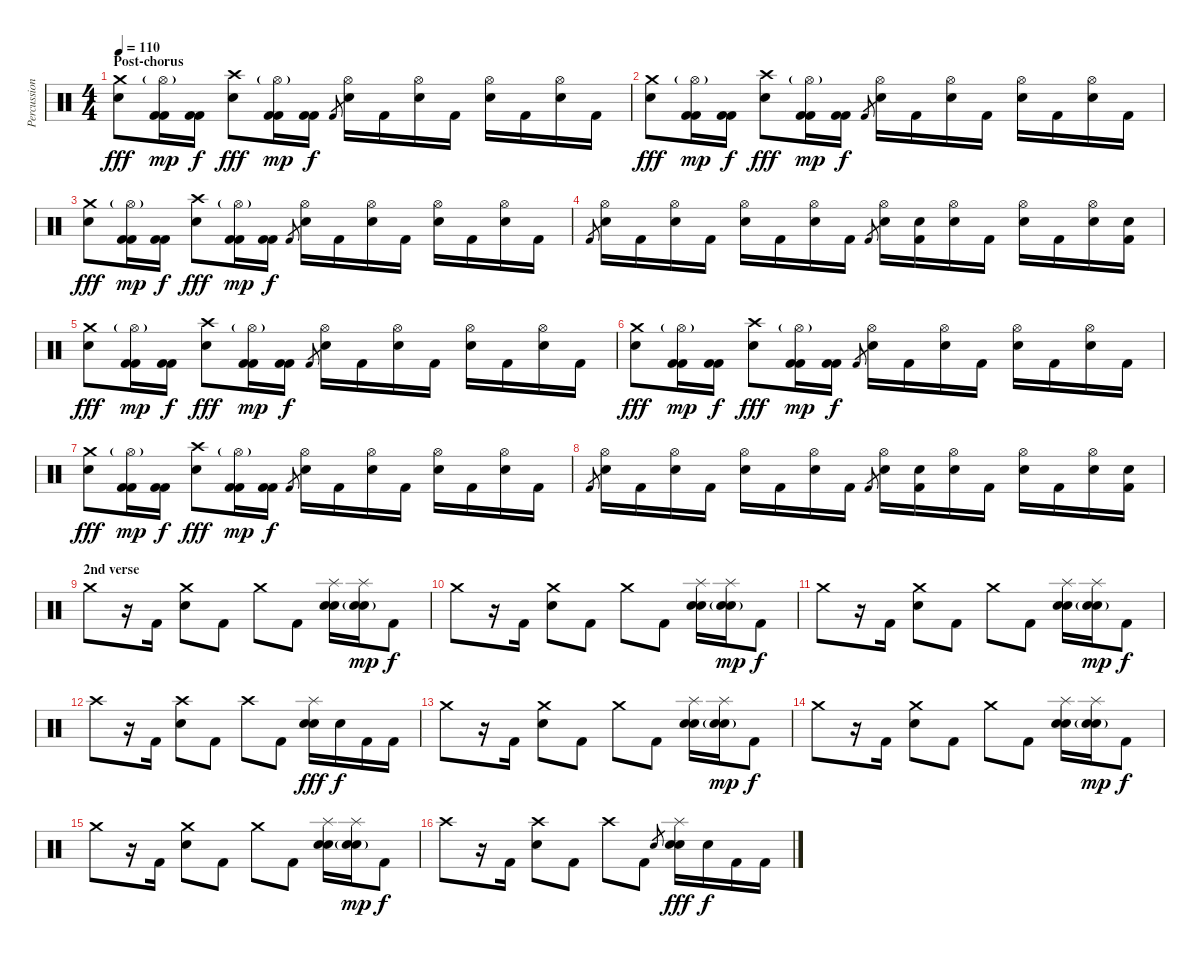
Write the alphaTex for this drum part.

\track ("Percussion" "Percussion") {instrument percussion}
\staff {score}
\articulation defaults
\ts (4 4)
\section ("" "Post-chorus")
\tempo 110
\clef neutral
\ks c
("Crash medium (hit)" "Snare (hit) 2").8{dy fff} ("Hi-Hat (open)"{g} "Kick (hit) 2" "Kick (hit) 2").16{dy mp} ("Kick (hit) 2" "Kick (hit) 2").16{dy f} ("Crash high (hit)" "Snare (hit) 2").8{dy fff} ("Hi-Hat (open)"{g} "Kick (hit) 2" "Kick (hit) 2").16{dy mp} ("Kick (hit) 2" "Kick (hit) 2").16{dy f} "Kick (hit) 2".8{gr} ("Hi-Hat (open)" "Electric Snare (hit)").16 "Kick (hit) 2".16 ("Hi-Hat (open)" "Electric Snare (hit)").16 "Kick (hit) 2".16 ("Hi-Hat (open)" "Electric Snare (hit)").16 "Kick (hit) 2".16 ("Hi-Hat (open)" "Electric Snare (hit)").16 "Kick (hit) 2".16 |
("Crash medium (hit)" "Snare (hit) 2").8{dy fff} ("Hi-Hat (open)"{g} "Kick (hit) 2" "Kick (hit) 2").16{dy mp} ("Kick (hit) 2" "Kick (hit) 2").16{dy f} ("Crash high (hit)" "Snare (hit) 2").8{dy fff} ("Hi-Hat (open)"{g} "Kick (hit) 2" "Kick (hit) 2").16{dy mp} ("Kick (hit) 2" "Kick (hit) 2").16{dy f} "Kick (hit) 2".8{gr} ("Hi-Hat (open)" "Electric Snare (hit)").16 "Kick (hit) 2".16 ("Hi-Hat (open)" "Electric Snare (hit)").16 "Kick (hit) 2".16 ("Hi-Hat (open)" "Electric Snare (hit)").16 "Kick (hit) 2".16 ("Hi-Hat (open)" "Electric Snare (hit)").16 "Kick (hit) 2".16 |
("Crash medium (hit)" "Snare (hit) 2").8{dy fff} ("Hi-Hat (open)"{g} "Kick (hit) 2" "Kick (hit) 2").16{dy mp} ("Kick (hit) 2" "Kick (hit) 2").16{dy f} ("Crash high (hit)" "Snare (hit) 2").8{dy fff} ("Hi-Hat (open)"{g} "Kick (hit) 2" "Kick (hit) 2").16{dy mp} ("Kick (hit) 2" "Kick (hit) 2").16{dy f} "Kick (hit) 2".8{gr} ("Hi-Hat (open)" "Electric Snare (hit)").16 "Kick (hit) 2".16 ("Hi-Hat (open)" "Electric Snare (hit)").16 "Kick (hit) 2".16 ("Hi-Hat (open)" "Electric Snare (hit)").16 "Kick (hit) 2".16 ("Hi-Hat (open)" "Electric Snare (hit)").16 "Kick (hit) 2".16 |
"Kick (hit) 2".8{gr} ("Hi-Hat (open)" "Electric Snare (hit)").16 "Kick (hit) 2".16 ("Hi-Hat (open)" "Electric Snare (hit)").16 "Kick (hit) 2".16 ("Hi-Hat (open)" "Electric Snare (hit)").16 "Kick (hit) 2".16 ("Hi-Hat (open)" "Electric Snare (hit)").16 "Kick (hit) 2".16 "Kick (hit) 2".8{gr} ("Hi-Hat (open)" "Electric Snare (hit)").16 ("Snare (hit) 2" "Kick (hit) 2").16 ("Hi-Hat (open)" "Electric Snare (hit)").16 "Kick (hit) 2".16 ("Hi-Hat (open)" "Electric Snare (hit)").16 "Kick (hit) 2".16 ("Hi-Hat (open)" "Snare (hit) 2").16 ("Snare (hit) 2" "Kick (hit) 2").16 |
("Crash medium (hit)" "Snare (hit) 2").8{dy fff} ("Hi-Hat (open)"{g} "Kick (hit) 2" "Kick (hit) 2").16{dy mp} ("Kick (hit) 2" "Kick (hit) 2").16{dy f} ("Crash high (hit)" "Snare (hit) 2").8{dy fff} ("Hi-Hat (open)"{g} "Kick (hit) 2" "Kick (hit) 2").16{dy mp} ("Kick (hit) 2" "Kick (hit) 2").16{dy f} "Kick (hit) 2".8{gr} ("Hi-Hat (open)" "Electric Snare (hit)").16 "Kick (hit) 2".16 ("Hi-Hat (open)" "Electric Snare (hit)").16 "Kick (hit) 2".16 ("Hi-Hat (open)" "Electric Snare (hit)").16 "Kick (hit) 2".16 ("Hi-Hat (open)" "Electric Snare (hit)").16 "Kick (hit) 2".16 |
("Crash medium (hit)" "Snare (hit) 2").8{dy fff} ("Hi-Hat (open)"{g} "Kick (hit) 2" "Kick (hit) 2").16{dy mp} ("Kick (hit) 2" "Kick (hit) 2").16{dy f} ("Crash high (hit)" "Snare (hit) 2").8{dy fff} ("Hi-Hat (open)"{g} "Kick (hit) 2" "Kick (hit) 2").16{dy mp} ("Kick (hit) 2" "Kick (hit) 2").16{dy f} "Kick (hit) 2".8{gr} ("Hi-Hat (open)" "Electric Snare (hit)").16 "Kick (hit) 2".16 ("Hi-Hat (open)" "Electric Snare (hit)").16 "Kick (hit) 2".16 ("Hi-Hat (open)" "Electric Snare (hit)").16 "Kick (hit) 2".16 ("Hi-Hat (open)" "Electric Snare (hit)").16 "Kick (hit) 2".16 |
("Crash medium (hit)" "Snare (hit) 2").8{dy fff} ("Hi-Hat (open)"{g} "Kick (hit) 2" "Kick (hit) 2").16{dy mp} ("Kick (hit) 2" "Kick (hit) 2").16{dy f} ("Crash high (hit)" "Snare (hit) 2").8{dy fff} ("Hi-Hat (open)"{g} "Kick (hit) 2" "Kick (hit) 2").16{dy mp} ("Kick (hit) 2" "Kick (hit) 2").16{dy f} "Kick (hit) 2".8{gr} ("Hi-Hat (open)" "Electric Snare (hit)").16 "Kick (hit) 2".16 ("Hi-Hat (open)" "Electric Snare (hit)").16 "Kick (hit) 2".16 ("Hi-Hat (open)" "Electric Snare (hit)").16 "Kick (hit) 2".16 ("Hi-Hat (open)" "Electric Snare (hit)").16 "Kick (hit) 2".16 |
"Kick (hit) 2".8{gr} ("Hi-Hat (open)" "Electric Snare (hit)").16 "Kick (hit) 2".16 ("Hi-Hat (open)" "Electric Snare (hit)").16 "Kick (hit) 2".16 ("Hi-Hat (open)" "Electric Snare (hit)").16 "Kick (hit) 2".16 ("Hi-Hat (open)" "Electric Snare (hit)").16 "Kick (hit) 2".16 "Kick (hit) 2".8{gr} ("Hi-Hat (open)" "Electric Snare (hit)").16 ("Snare (hit) 2" "Kick (hit) 2").16 ("Hi-Hat (open)" "Electric Snare (hit)").16 "Kick (hit) 2".16 ("Hi-Hat (open)" "Electric Snare (hit)").16 "Kick (hit) 2".16 ("Hi-Hat (open)" "Snare (hit) 2").16 ("Snare (hit) 2" "Kick (hit) 2").16 |
\section ("" "2nd verse")
"Crash medium (hit)".8 r.16 "Kick (hit) 2".16 ("Crash medium (hit)" "Snare (hit) 2").8 "Kick (hit) 2".8 "Crash medium (hit)".8 "Kick (hit) 2".8 ("Hand Clap (hit)" "Splash (hit)" "Snare (hit) 2").16 ("Hand Clap (hit)"{g} "Splash (hit)" "Snare (hit) 2").16{dy mp} "Kick (hit) 2".8{dy f} |
"Crash medium (hit)".8 r.16 "Kick (hit) 2".16 ("Crash medium (hit)" "Snare (hit) 2").8 "Kick (hit) 2".8 "Crash medium (hit)".8 "Kick (hit) 2".8 ("Hand Clap (hit)" "Splash (hit)" "Snare (hit) 2").16 ("Hand Clap (hit)"{g} "Splash (hit)" "Snare (hit) 2").16{dy mp} "Kick (hit) 2".8{dy f} |
"Crash medium (hit)".8 r.16 "Kick (hit) 2".16 ("Crash medium (hit)" "Snare (hit) 2").8 "Kick (hit) 2".8 "Crash medium (hit)".8 "Kick (hit) 2".8 ("Hand Clap (hit)" "Splash (hit)" "Snare (hit) 2").16 ("Hand Clap (hit)"{g} "Splash (hit)" "Snare (hit) 2").16{dy mp} "Kick (hit) 2".8{dy f} |
"Crash high (hit)".8 r.16 "Kick (hit) 2".16 ("Crash high (hit)" "Snare (hit) 2").8 "Kick (hit) 2".8 "Crash high (hit)".8 "Kick (hit) 2".8 ("Hand Clap (hit)" "Splash (hit)" "Snare (hit) 2").16{dy fff} "Snare (hit) 2".16{dy f} "Kick (hit) 2".16 "Kick (hit) 2".16 |
"Crash medium (hit)".8 r.16 "Kick (hit) 2".16 ("Crash medium (hit)" "Snare (hit) 2").8 "Kick (hit) 2".8 "Crash medium (hit)".8 "Kick (hit) 2".8 ("Hand Clap (hit)" "Splash (hit)" "Snare (hit) 2").16 ("Hand Clap (hit)"{g} "Splash (hit)" "Snare (hit) 2").16{dy mp} "Kick (hit) 2".8{dy f} |
"Crash medium (hit)".8 r.16 "Kick (hit) 2".16 ("Crash medium (hit)" "Snare (hit) 2").8 "Kick (hit) 2".8 "Crash medium (hit)".8 "Kick (hit) 2".8 ("Hand Clap (hit)" "Splash (hit)" "Snare (hit) 2").16 ("Hand Clap (hit)"{g} "Splash (hit)" "Snare (hit) 2").16{dy mp} "Kick (hit) 2".8{dy f} |
"Crash medium (hit)".8 r.16 "Kick (hit) 2".16 ("Crash medium (hit)" "Snare (hit) 2").8 "Kick (hit) 2".8 "Crash medium (hit)".8 "Kick (hit) 2".8 ("Hand Clap (hit)" "Splash (hit)" "Snare (hit) 2").16 ("Hand Clap (hit)"{g} "Splash (hit)" "Snare (hit) 2").16{dy mp} "Kick (hit) 2".8{dy f} |
"Crash high (hit)".8 r.16 "Kick (hit) 2".16 ("Crash high (hit)" "Snare (hit) 2").8 "Kick (hit) 2".8 "Crash high (hit)".8 "Kick (hit) 2".8 "Snare (hit) 2".8{gr} ("Hand Clap (hit)" "Splash (hit)" "Snare (hit) 2").16{dy fff} "Snare (hit) 2".16{dy f} "Kick (hit) 2".16 "Kick (hit) 2".16
